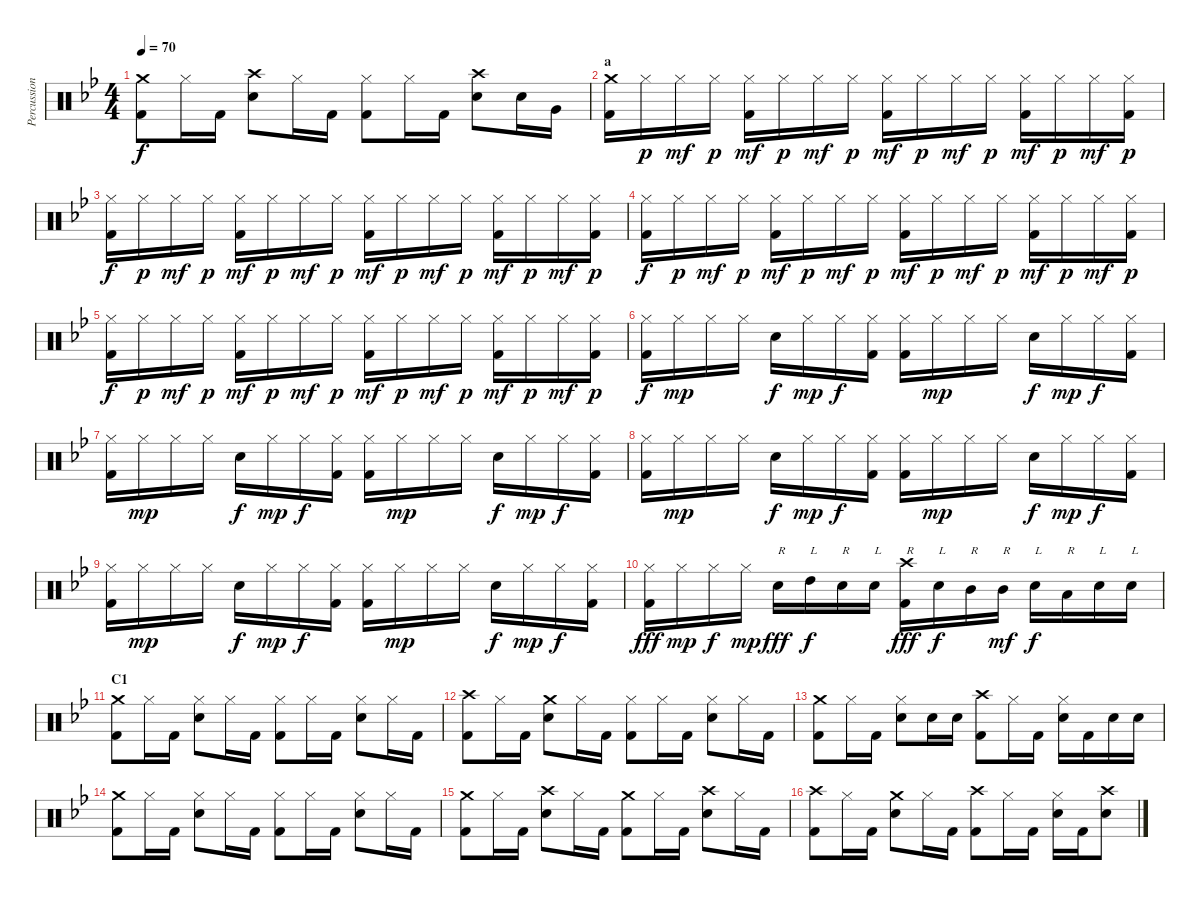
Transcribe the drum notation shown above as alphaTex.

\track ("Percussion" "Percussion") {instrument percussion}
\staff {score}
\articulation defaults
\ts (4 4)
\tempo 70
\clef neutral
\ks bb
("Crash medium (hit)" "Kick (hit) 2").8{dy f} "Hi-Hat (closed)".16 "Kick (hit) 2".16 ("Crash high (hit)" "Electric Snare (hit)").8 "Hi-Hat (closed)".16 "Kick (hit) 2".16 ("Hi-Hat (closed)" "Kick (hit) 2").8 "Hi-Hat (closed)".16 "Kick (hit) 2".16 ("Crash high (hit)" "Electric Snare (hit)").8 "Electric Snare (hit)".16 "Very Low Tom (hit)".16 |
\section ("" "a")
("Crash medium (hit)" "Kick (hit) 2").16 "Hi-Hat (closed)".16{dy p} "Hi-Hat (closed)".16{dy mf} "Hi-Hat (closed)".16{dy p} ("Hi-Hat (closed)" "Kick (hit) 2").16{dy mf} "Hi-Hat (closed)".16{dy p} "Hi-Hat (closed)".16{dy mf} "Hi-Hat (closed)".16{dy p} ("Hi-Hat (closed)" "Kick (hit) 2").16{dy mf} "Hi-Hat (closed)".16{dy p} "Hi-Hat (closed)".16{dy mf} "Hi-Hat (closed)".16{dy p} ("Hi-Hat (closed)" "Kick (hit) 2").16{dy mf} "Hi-Hat (closed)".16{dy p} "Hi-Hat (closed)".16{dy mf} ("Hi-Hat (closed)" "Kick (hit) 2").16{dy p} |
("Hi-Hat (closed)" "Kick (hit) 2").16{dy f} "Hi-Hat (closed)".16{dy p} "Hi-Hat (closed)".16{dy mf} "Hi-Hat (closed)".16{dy p} ("Hi-Hat (closed)" "Kick (hit) 2").16{dy mf} "Hi-Hat (closed)".16{dy p} "Hi-Hat (closed)".16{dy mf} "Hi-Hat (closed)".16{dy p} ("Hi-Hat (closed)" "Kick (hit) 2").16{dy mf} "Hi-Hat (closed)".16{dy p} "Hi-Hat (closed)".16{dy mf} "Hi-Hat (closed)".16{dy p} ("Hi-Hat (closed)" "Kick (hit) 2").16{dy mf} "Hi-Hat (closed)".16{dy p} "Hi-Hat (closed)".16{dy mf} ("Hi-Hat (closed)" "Kick (hit) 2").16{dy p} |
("Hi-Hat (closed)" "Kick (hit) 2").16{dy f} "Hi-Hat (closed)".16{dy p} "Hi-Hat (closed)".16{dy mf} "Hi-Hat (closed)".16{dy p} ("Hi-Hat (closed)" "Kick (hit) 2").16{dy mf} "Hi-Hat (closed)".16{dy p} "Hi-Hat (closed)".16{dy mf} "Hi-Hat (closed)".16{dy p} ("Hi-Hat (closed)" "Kick (hit) 2").16{dy mf} "Hi-Hat (closed)".16{dy p} "Hi-Hat (closed)".16{dy mf} "Hi-Hat (closed)".16{dy p} ("Hi-Hat (closed)" "Kick (hit) 2").16{dy mf} "Hi-Hat (closed)".16{dy p} "Hi-Hat (closed)".16{dy mf} ("Hi-Hat (closed)" "Kick (hit) 2").16{dy p} |
("Hi-Hat (closed)" "Kick (hit) 2").16{dy f} "Hi-Hat (closed)".16{dy p} "Hi-Hat (closed)".16{dy mf} "Hi-Hat (closed)".16{dy p} ("Hi-Hat (closed)" "Kick (hit) 2").16{dy mf} "Hi-Hat (closed)".16{dy p} "Hi-Hat (closed)".16{dy mf} "Hi-Hat (closed)".16{dy p} ("Hi-Hat (closed)" "Kick (hit) 2").16{dy mf} "Hi-Hat (closed)".16{dy p} "Hi-Hat (closed)".16{dy mf} "Hi-Hat (closed)".16{dy p} ("Hi-Hat (closed)" "Kick (hit) 2").16{dy mf} "Hi-Hat (closed)".16{dy p} "Hi-Hat (closed)".16{dy mf} ("Hi-Hat (closed)" "Kick (hit) 2").16{dy p} |
("Hi-Hat (closed)" "Kick (hit) 2").16{dy f} "Hi-Hat (closed)".16{dy mp} "Hi-Hat (closed)".16 "Hi-Hat (closed)".16 "Electric Snare (hit)".16{dy f} "Hi-Hat (closed)".16{dy mp} "Hi-Hat (closed)".16{dy f} ("Hi-Hat (closed)" "Kick (hit) 2").16 ("Hi-Hat (closed)" "Kick (hit) 2").16 "Hi-Hat (closed)".16{dy mp} "Hi-Hat (closed)".16 "Hi-Hat (closed)".16 "Electric Snare (hit)".16{dy f} "Hi-Hat (closed)".16{dy mp} "Hi-Hat (closed)".16{dy f} ("Hi-Hat (closed)" "Kick (hit) 2").16 |
("Hi-Hat (closed)" "Kick (hit) 2").16 "Hi-Hat (closed)".16{dy mp} "Hi-Hat (closed)".16 "Hi-Hat (closed)".16 "Electric Snare (hit)".16{dy f} "Hi-Hat (closed)".16{dy mp} "Hi-Hat (closed)".16{dy f} ("Hi-Hat (closed)" "Kick (hit) 2").16 ("Hi-Hat (closed)" "Kick (hit) 2").16 "Hi-Hat (closed)".16{dy mp} "Hi-Hat (closed)".16 "Hi-Hat (closed)".16 "Electric Snare (hit)".16{dy f} "Hi-Hat (closed)".16{dy mp} "Hi-Hat (closed)".16{dy f} ("Hi-Hat (closed)" "Kick (hit) 2").16 |
("Hi-Hat (closed)" "Kick (hit) 2").16 "Hi-Hat (closed)".16{dy mp} "Hi-Hat (closed)".16 "Hi-Hat (closed)".16 "Electric Snare (hit)".16{dy f} "Hi-Hat (closed)".16{dy mp} "Hi-Hat (closed)".16{dy f} ("Hi-Hat (closed)" "Kick (hit) 2").16 ("Hi-Hat (closed)" "Kick (hit) 2").16 "Hi-Hat (closed)".16{dy mp} "Hi-Hat (closed)".16 "Hi-Hat (closed)".16 "Electric Snare (hit)".16{dy f} "Hi-Hat (closed)".16{dy mp} "Hi-Hat (closed)".16{dy f} ("Hi-Hat (closed)" "Kick (hit) 2").16 |
("Hi-Hat (closed)" "Kick (hit) 2").16 "Hi-Hat (closed)".16{dy mp} "Hi-Hat (closed)".16 "Hi-Hat (closed)".16 "Electric Snare (hit)".16{dy f} "Hi-Hat (closed)".16{dy mp} "Hi-Hat (closed)".16{dy f} ("Hi-Hat (closed)" "Kick (hit) 2").16 ("Hi-Hat (closed)" "Kick (hit) 2").16 "Hi-Hat (closed)".16{dy mp} "Hi-Hat (closed)".16 "Hi-Hat (closed)".16 "Electric Snare (hit)".16{dy f} "Hi-Hat (closed)".16{dy mp} "Hi-Hat (closed)".16{dy f} ("Hi-Hat (closed)" "Kick (hit) 2").16 |
("Hi-Hat (closed)" "Kick (hit) 2").16{dy fff} "Hi-Hat (closed)".16{dy mp} "Hi-Hat (closed)".16{dy f} "Hi-Hat (closed)".16{dy mp} "Electric Snare (hit)".16{txt "R" dy fff} "High Tom (hit)".16{txt "L" dy f} "Electric Snare (hit)".16{txt "R"} "Electric Snare (hit)".16{txt "L"} ("Crash high (hit)" "Kick (hit) 2").16{txt "R" dy fff} "Electric Snare (hit)".16{txt "L" dy f} "Mid Tom (hit)".16{txt "R"} "Mid Tom (hit)".16{txt "R" dy mf} "Electric Snare (hit)".16{txt "L" dy f} "Low Tom (hit)".16{txt "R"} "Electric Snare (hit)".16{txt "L"} "Electric Snare (hit)".16{txt "L"} |
\section ("" "C1")
("Crash medium (hit)" "Kick (hit) 2").8 "Hi-Hat (closed)".16 "Kick (hit) 2".16 ("Hi-Hat (closed)" "Electric Snare (hit)").8 "Hi-Hat (closed)".16 "Kick (hit) 2".16 ("Hi-Hat (closed)" "Kick (hit) 2").8 "Hi-Hat (closed)".16 "Kick (hit) 2".16 ("Hi-Hat (closed)" "Electric Snare (hit)").8 "Hi-Hat (closed)".16 "Kick (hit) 2".16 |
("Crash high (hit)" "Kick (hit) 2").8 "Hi-Hat (closed)".16 "Kick (hit) 2".16 ("Crash medium (hit)" "Electric Snare (hit)").8 "Hi-Hat (closed)".16 "Kick (hit) 2".16 ("Hi-Hat (closed)" "Kick (hit) 2").8 "Hi-Hat (closed)".16 "Kick (hit) 2".16 ("Hi-Hat (closed)" "Electric Snare (hit)").8 "Hi-Hat (closed)".16 "Kick (hit) 2".16 |
("Crash medium (hit)" "Kick (hit) 2").8 "Hi-Hat (closed)".16 "Kick (hit) 2".16 ("Hi-Hat (closed)" "Electric Snare (hit)").8 "Electric Snare (hit)".16 "Electric Snare (hit)".16 ("Crash high (hit)" "Kick (hit) 2").8 "Hi-Hat (closed)".16 "Kick (hit) 2".16 ("Hi-Hat (closed)" "Electric Snare (hit)").16 "Kick (hit) 2".16 "Electric Snare (hit)".16 "Electric Snare (hit)".16 |
("Crash medium (hit)" "Kick (hit) 2").8 "Hi-Hat (closed)".16 "Kick (hit) 2".16 ("Hi-Hat (closed)" "Electric Snare (hit)").8 "Hi-Hat (closed)".16 "Kick (hit) 2".16 ("Hi-Hat (closed)" "Kick (hit) 2").8 "Hi-Hat (closed)".16 "Kick (hit) 2".16 ("Hi-Hat (closed)" "Electric Snare (hit)").8 "Hi-Hat (closed)".16 "Kick (hit) 2".16 |
("Crash medium (hit)" "Kick (hit) 2").8 "Hi-Hat (closed)".16 "Kick (hit) 2".16 ("Crash high (hit)" "Electric Snare (hit)").8 "Hi-Hat (closed)".16 "Kick (hit) 2".16 ("Crash medium (hit)" "Kick (hit) 2").8 "Hi-Hat (closed)".16 "Kick (hit) 2".16 ("Crash high (hit)" "Electric Snare (hit)").8 "Hi-Hat (closed)".16 "Kick (hit) 2".16 |
("Crash high (hit)" "Kick (hit) 2").8 "Hi-Hat (closed)".16 "Kick (hit) 2".16 ("Crash medium (hit)" "Electric Snare (hit)").8 "Hi-Hat (closed)".16 "Kick (hit) 2".16 ("Crash high (hit)" "Kick (hit) 2").8 "Hi-Hat (closed)".16 "Kick (hit) 2".16 ("Hi-Hat (closed)" "Electric Snare (hit)").16 "Kick (hit) 2".16 ("Crash high (hit)" "Electric Snare (hit)").8
